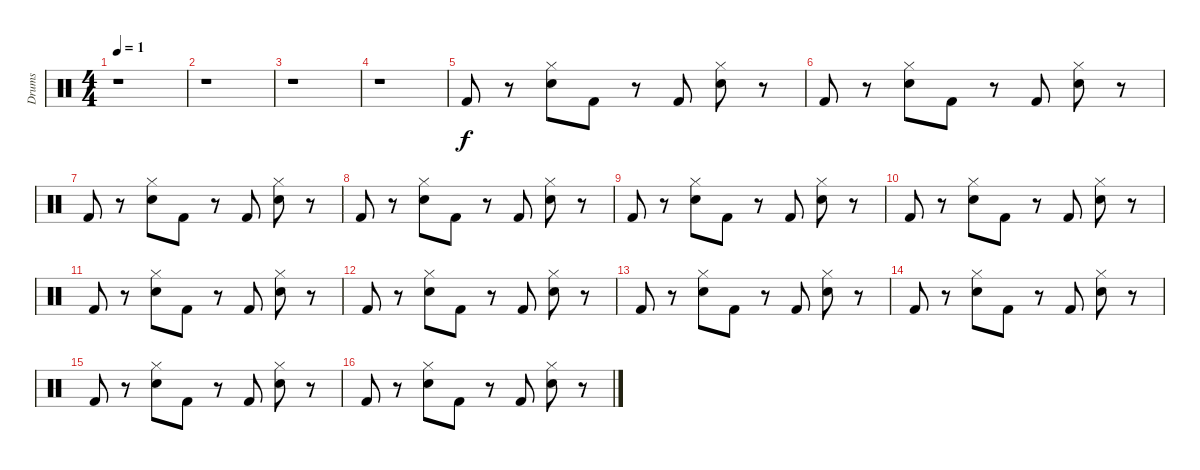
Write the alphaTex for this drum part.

\track ("Drums" "Drums") {instrument percussion}
\staff {score}
\articulation defaults
\ts (4 4)
\tempo 1
\clef neutral
\ks c
r.1{dy f} |
r.1 |
r.1 |
r.1 |
"Kick (hit) 2".8 r.8 ("Hi-Hat (closed)" "Snare (hit) 2").8 "Kick (hit) 2".8 r.8 "Kick (hit) 2".8 ("Hi-Hat (closed)" "Snare (hit) 2").8 r.8 |
"Kick (hit) 2".8 r.8 ("Hi-Hat (closed)" "Snare (hit) 2").8 "Kick (hit) 2".8 r.8 "Kick (hit) 2".8 ("Hi-Hat (closed)" "Snare (hit) 2").8 r.8 |
"Kick (hit) 2".8 r.8 ("Hi-Hat (closed)" "Snare (hit) 2").8 "Kick (hit) 2".8 r.8 "Kick (hit) 2".8 ("Hi-Hat (closed)" "Snare (hit) 2").8 r.8 |
"Kick (hit) 2".8 r.8 ("Hi-Hat (closed)" "Snare (hit) 2").8 "Kick (hit) 2".8 r.8 "Kick (hit) 2".8 ("Hi-Hat (closed)" "Snare (hit) 2").8 r.8 |
"Kick (hit) 2".8 r.8 ("Hi-Hat (closed)" "Snare (hit) 2").8 "Kick (hit) 2".8 r.8 "Kick (hit) 2".8 ("Hi-Hat (closed)" "Snare (hit) 2").8 r.8 |
"Kick (hit) 2".8 r.8 ("Hi-Hat (closed)" "Snare (hit) 2").8 "Kick (hit) 2".8 r.8 "Kick (hit) 2".8 ("Hi-Hat (closed)" "Snare (hit) 2").8 r.8 |
"Kick (hit) 2".8 r.8 ("Hi-Hat (closed)" "Snare (hit) 2").8 "Kick (hit) 2".8 r.8 "Kick (hit) 2".8 ("Hi-Hat (closed)" "Snare (hit) 2").8 r.8 |
"Kick (hit) 2".8 r.8 ("Hi-Hat (closed)" "Snare (hit) 2").8 "Kick (hit) 2".8 r.8 "Kick (hit) 2".8 ("Hi-Hat (closed)" "Snare (hit) 2").8 r.8 |
"Kick (hit) 2".8 r.8 ("Hi-Hat (closed)" "Snare (hit) 2").8 "Kick (hit) 2".8 r.8 "Kick (hit) 2".8 ("Hi-Hat (closed)" "Snare (hit) 2").8 r.8 |
"Kick (hit) 2".8 r.8 ("Hi-Hat (closed)" "Snare (hit) 2").8 "Kick (hit) 2".8 r.8 "Kick (hit) 2".8 ("Hi-Hat (closed)" "Snare (hit) 2").8 r.8 |
"Kick (hit) 2".8 r.8 ("Hi-Hat (closed)" "Snare (hit) 2").8 "Kick (hit) 2".8 r.8 "Kick (hit) 2".8 ("Hi-Hat (closed)" "Snare (hit) 2").8 r.8 |
"Kick (hit) 2".8 r.8 ("Hi-Hat (closed)" "Snare (hit) 2").8 "Kick (hit) 2".8 r.8 "Kick (hit) 2".8 ("Hi-Hat (closed)" "Snare (hit) 2").8 r.8
